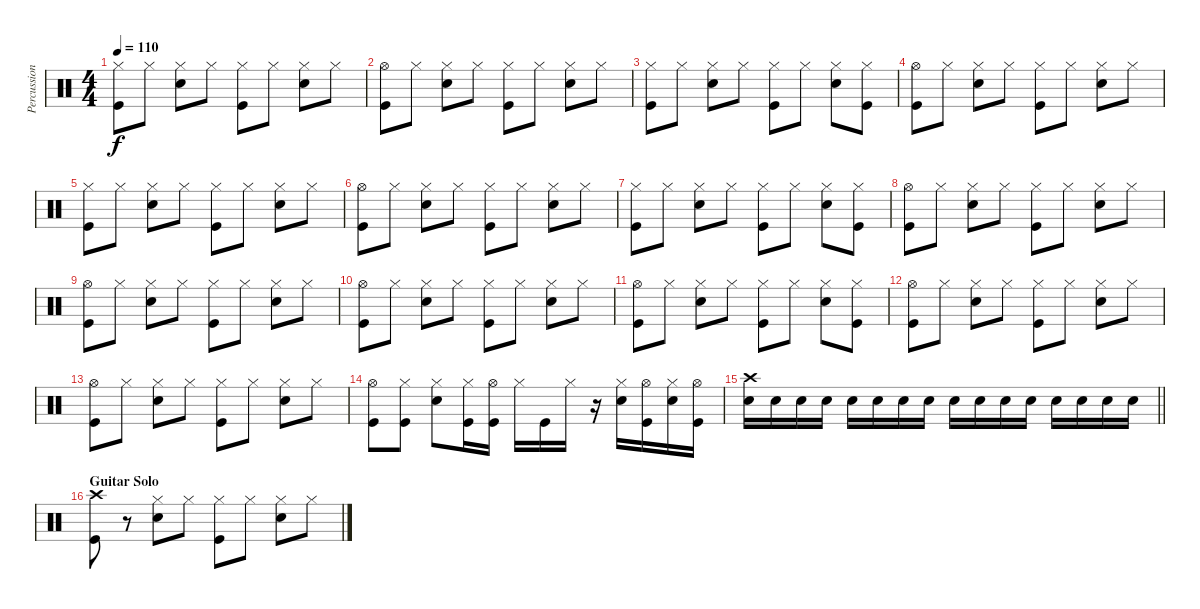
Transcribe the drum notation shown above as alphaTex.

\track ("Percussion" "Percussion") {instrument percussion}
\staff {score}
\articulation defaults
\ts (4 4)
\tempo 110
\clef neutral
\ks c
("Hi-Hat (closed)" "Kick (hit)").8{dy f} "Hi-Hat (closed)".8 ("Hi-Hat (closed)" "Snare (hit) 2").8 "Hi-Hat (closed)".8 ("Hi-Hat (closed)" "Kick (hit)").8 "Hi-Hat (closed)".8 ("Hi-Hat (closed)" "Snare (hit) 2").8 "Hi-Hat (closed)".8 |
("Hi-Hat (open)" "Kick (hit)").8 "Hi-Hat (closed)".8 ("Hi-Hat (closed)" "Snare (hit) 2").8 "Hi-Hat (closed)".8 ("Hi-Hat (closed)" "Kick (hit)").8 "Hi-Hat (closed)".8 ("Hi-Hat (closed)" "Snare (hit) 2").8 "Hi-Hat (closed)".8 |
("Hi-Hat (closed)" "Kick (hit)").8 "Hi-Hat (closed)".8 ("Hi-Hat (closed)" "Snare (hit) 2").8 "Hi-Hat (closed)".8 ("Hi-Hat (closed)" "Kick (hit)").8 "Hi-Hat (closed)".8 ("Hi-Hat (closed)" "Snare (hit) 2").8 ("Hi-Hat (closed)" "Kick (hit)").8 |
("Hi-Hat (open)" "Kick (hit)").8 "Hi-Hat (closed)".8 ("Hi-Hat (closed)" "Snare (hit) 2").8 "Hi-Hat (closed)".8 ("Hi-Hat (closed)" "Kick (hit)").8 "Hi-Hat (closed)".8 ("Hi-Hat (closed)" "Snare (hit) 2").8 "Hi-Hat (closed)".8 |
("Hi-Hat (closed)" "Kick (hit)").8 "Hi-Hat (closed)".8 ("Hi-Hat (closed)" "Snare (hit) 2").8 "Hi-Hat (closed)".8 ("Hi-Hat (closed)" "Kick (hit)").8 "Hi-Hat (closed)".8 ("Hi-Hat (closed)" "Snare (hit) 2").8 "Hi-Hat (closed)".8 |
("Hi-Hat (open)" "Kick (hit)").8 "Hi-Hat (closed)".8 ("Hi-Hat (closed)" "Snare (hit) 2").8 "Hi-Hat (closed)".8 ("Hi-Hat (closed)" "Kick (hit)").8 "Hi-Hat (closed)".8 ("Hi-Hat (closed)" "Snare (hit) 2").8 "Hi-Hat (closed)".8 |
("Hi-Hat (closed)" "Kick (hit)").8 "Hi-Hat (closed)".8 ("Hi-Hat (closed)" "Snare (hit) 2").8 "Hi-Hat (closed)".8 ("Hi-Hat (closed)" "Kick (hit)").8 "Hi-Hat (closed)".8 ("Hi-Hat (closed)" "Snare (hit) 2").8 ("Hi-Hat (closed)" "Kick (hit)").8 |
("Hi-Hat (open)" "Kick (hit)").8 "Hi-Hat (closed)".8 ("Hi-Hat (closed)" "Snare (hit) 2").8 "Hi-Hat (closed)".8 ("Hi-Hat (closed)" "Kick (hit)").8 "Hi-Hat (closed)".8 ("Hi-Hat (closed)" "Snare (hit) 2").8 "Hi-Hat (closed)".8 |
("Hi-Hat (open)" "Kick (hit)").8 "Hi-Hat (closed)".8 ("Hi-Hat (closed)" "Snare (hit) 2").8 "Hi-Hat (closed)".8 ("Hi-Hat (closed)" "Kick (hit)").8 "Hi-Hat (closed)".8 ("Hi-Hat (closed)" "Snare (hit) 2").8 "Hi-Hat (closed)".8 |
("Hi-Hat (open)" "Kick (hit)").8 "Hi-Hat (closed)".8 ("Hi-Hat (closed)" "Snare (hit) 2").8 "Hi-Hat (closed)".8 ("Hi-Hat (closed)" "Kick (hit)").8 "Hi-Hat (closed)".8 ("Hi-Hat (closed)" "Snare (hit) 2").8 "Hi-Hat (closed)".8 |
("Hi-Hat (open)" "Kick (hit)").8 "Hi-Hat (closed)".8 ("Hi-Hat (closed)" "Snare (hit) 2").8 "Hi-Hat (closed)".8 ("Hi-Hat (closed)" "Kick (hit)").8 "Hi-Hat (closed)".8 ("Hi-Hat (closed)" "Snare (hit) 2").8 ("Hi-Hat (closed)" "Kick (hit)").8 |
("Hi-Hat (open)" "Kick (hit)").8 "Hi-Hat (closed)".8 ("Hi-Hat (closed)" "Snare (hit) 2").8 "Hi-Hat (closed)".8 ("Hi-Hat (closed)" "Kick (hit)").8 "Hi-Hat (closed)".8 ("Hi-Hat (closed)" "Snare (hit) 2").8 "Hi-Hat (closed)".8 |
("Hi-Hat (open)" "Kick (hit)").8 "Hi-Hat (closed)".8 ("Hi-Hat (closed)" "Snare (hit) 2").8 "Hi-Hat (closed)".8 ("Hi-Hat (closed)" "Kick (hit)").8 "Hi-Hat (closed)".8 ("Hi-Hat (closed)" "Snare (hit) 2").8 "Hi-Hat (closed)".8 |
("Hi-Hat (open)" "Kick (hit)").8 ("Hi-Hat (closed)" "Kick (hit)").8 ("Hi-Hat (closed)" "Snare (hit) 2").8 ("Hi-Hat (closed)" "Kick (hit)").16 ("Hi-Hat (open)" "Kick (hit)").16 "Hi-Hat (closed)".16 "Kick (hit)".16 "Hi-Hat (closed)".16 r.16 ("Hi-Hat (closed)" "Snare (hit) 2").16 ("Hi-Hat (open)" "Kick (hit)").16 ("Hi-Hat (closed)" "Snare (hit) 2").16 ("Hi-Hat (open)" "Kick (hit)").16 |
\barLineRight lightlight
("Crash high (hit)" "Snare (hit) 2").16 "Snare (hit) 2".16 "Snare (hit) 2".16 "Snare (hit) 2".16 "Snare (hit) 2".16 "Snare (hit) 2".16 "Snare (hit) 2".16 "Snare (hit) 2".16 "Snare (hit) 2".16 "Snare (hit) 2".16 "Snare (hit) 2".16 "Snare (hit) 2".16 "Snare (hit) 2".16 "Snare (hit) 2".16 "Snare (hit) 2".16 "Snare (hit) 2".16 |
\section ("" "Guitar Solo")
("Crash high (hit)" "Kick (hit)").8 r.8 ("Hi-Hat (closed)" "Snare (hit) 2").8 "Hi-Hat (closed)".8 ("Hi-Hat (closed)" "Kick (hit)").8 "Hi-Hat (closed)".8 ("Hi-Hat (closed)" "Snare (hit) 2").8 "Hi-Hat (closed)".8
